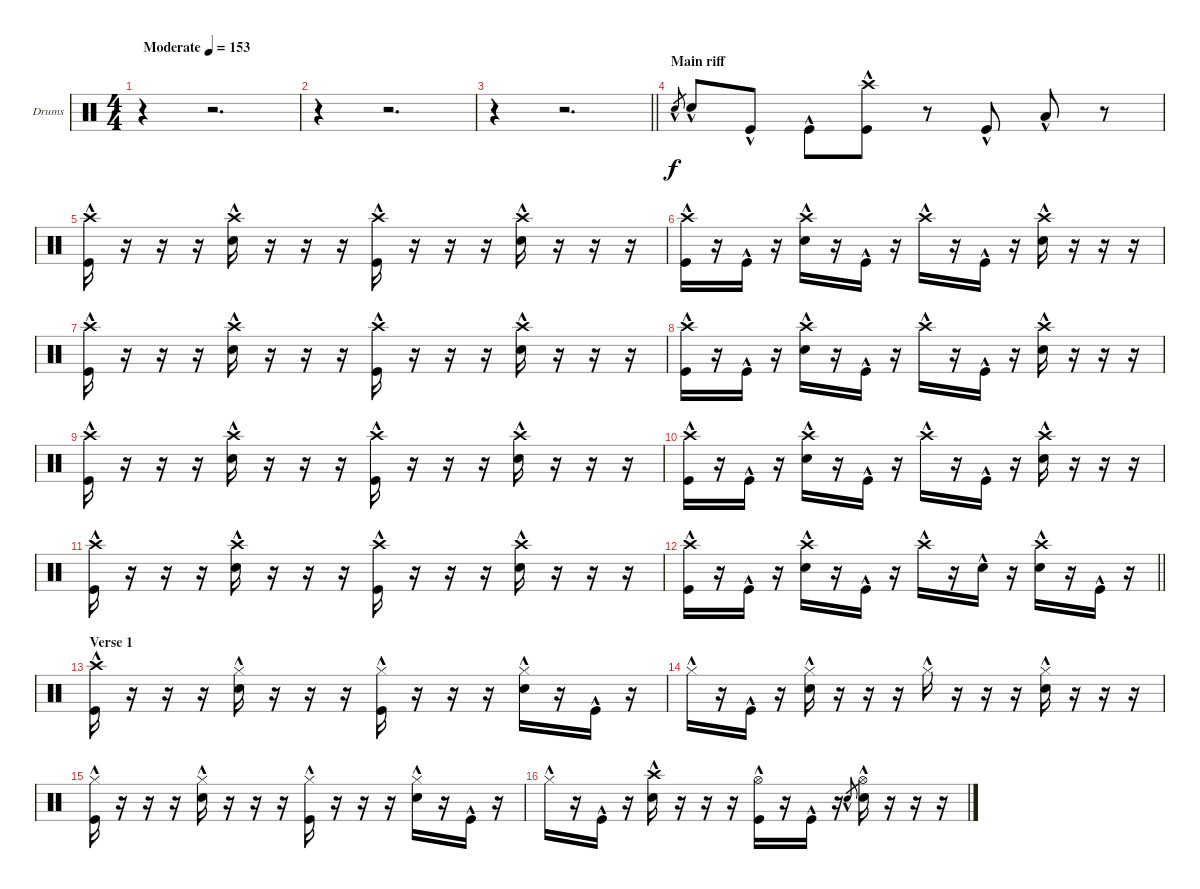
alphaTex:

\bracketExtendMode groupsimilarinstruments
\firstSystemTrackNameOrientation horizontal
\otherSystemsTrackNameOrientation horizontal
\track ("Drumkit" "Drums") {solo instrument percussion}
\staff {score}
\articulation defaults
\ts (4 4)
\beaming (8 2 2 2 2)
\tempo (153 "Moderate")
\clef neutral
\ks c
r.4{dy f} r.2{d} |
r.4 r.2{d} |
\barLineRight lightlight
r.4 r.2{d} |
\section ("" "Main riff")
"Snare (hit) 2"{hac}.8{gr} "Snare (hit) 2"{hac}.8 "Kick (hit)"{hac}.8 "Kick (hit)"{hac}.8 ("Crash high (hit)"{hac} "Kick (hit)"{hac}).8 r.8 "Kick (hit)"{hac}.8 "Low Tom (hit)"{hac}.8 r.8 |
("Crash high (hit)"{hac} "Kick (hit)"{hac}).16 r.16 r.16 r.16 ("Crash high (hit)"{hac} "Snare (hit) 2"{hac}).16 r.16 r.16 r.16 ("Crash high (hit)"{hac} "Kick (hit)"{hac}).16 r.16 r.16 r.16 ("Crash high (hit)"{hac} "Snare (hit) 2"{hac}).16 r.16 r.16 r.16 |
("Crash high (hit)"{hac} "Kick (hit)"{hac}).16 r.16 "Kick (hit)"{hac}.16 r.16 ("Crash high (hit)"{hac} "Snare (hit) 2"{hac}).16 r.16 "Kick (hit)"{hac}.16 r.16 "Crash high (hit)"{hac}.16 r.16 "Kick (hit)"{hac}.16 r.16 ("Crash high (hit)"{hac} "Snare (hit) 2"{hac}).16 r.16 r.16 r.16 |
("Crash high (hit)"{hac} "Kick (hit)"{hac}).16 r.16 r.16 r.16 ("Crash high (hit)"{hac} "Snare (hit) 2"{hac}).16 r.16 r.16 r.16 ("Crash high (hit)"{hac} "Kick (hit)"{hac}).16 r.16 r.16 r.16 ("Crash high (hit)"{hac} "Snare (hit) 2"{hac}).16 r.16 r.16 r.16 |
("Crash high (hit)"{hac} "Kick (hit)"{hac}).16 r.16 "Kick (hit)"{hac}.16 r.16 ("Crash high (hit)"{hac} "Snare (hit) 2"{hac}).16 r.16 "Kick (hit)"{hac}.16 r.16 "Crash high (hit)"{hac}.16 r.16 "Kick (hit)"{hac}.16 r.16 ("Crash high (hit)"{hac} "Snare (hit) 2"{hac}).16 r.16 r.16 r.16 |
("Crash high (hit)"{hac} "Kick (hit)"{hac}).16 r.16 r.16 r.16 ("Crash high (hit)"{hac} "Snare (hit) 2"{hac}).16 r.16 r.16 r.16 ("Crash high (hit)"{hac} "Kick (hit)"{hac}).16 r.16 r.16 r.16 ("Crash high (hit)"{hac} "Snare (hit) 2"{hac}).16 r.16 r.16 r.16 |
("Crash high (hit)"{hac} "Kick (hit)"{hac}).16 r.16 "Kick (hit)"{hac}.16 r.16 ("Crash high (hit)"{hac} "Snare (hit) 2"{hac}).16 r.16 "Kick (hit)"{hac}.16 r.16 "Crash high (hit)"{hac}.16 r.16 "Kick (hit)"{hac}.16 r.16 ("Crash high (hit)"{hac} "Snare (hit) 2"{hac}).16 r.16 r.16 r.16 |
("Crash high (hit)"{hac} "Kick (hit)"{hac}).16 r.16 r.16 r.16 ("Crash high (hit)"{hac} "Snare (hit) 2"{hac}).16 r.16 r.16 r.16 ("Crash high (hit)"{hac} "Kick (hit)"{hac}).16 r.16 r.16 r.16 ("Crash high (hit)"{hac} "Snare (hit) 2"{hac}).16 r.16 r.16 r.16 |
\barLineRight lightlight
("Crash high (hit)"{hac} "Kick (hit)"{hac}).16 r.16 "Kick (hit)"{hac}.16 r.16 ("Crash high (hit)"{hac} "Snare (hit) 2"{hac}).16 r.16 "Kick (hit)"{hac}.16 r.16 "Crash high (hit)"{hac}.16 r.16 "Snare (hit) 2"{hac}.16 r.16 ("Crash high (hit)"{hac} "Snare (hit) 2"{hac}).16 r.16 "Kick (hit)"{hac}.16 r.16 |
\section ("" "Verse 1")
("Crash high (hit)"{hac} "Kick (hit)"{hac}).16 r.16 r.16 r.16 ("Hi-Hat (closed)"{hac} "Snare (hit) 2"{hac}).16 r.16 r.16 r.16 ("Hi-Hat (closed)"{hac} "Kick (hit)"{hac}).16 r.16 r.16 r.16 ("Hi-Hat (closed)"{hac} "Snare (hit) 2"{hac}).16 r.16 "Kick (hit)"{hac}.16 r.16 |
"Hi-Hat (closed)"{hac}.16 r.16 "Kick (hit)"{hac}.16 r.16 ("Hi-Hat (closed)"{hac} "Snare (hit) 2"{hac}).16 r.16 r.16 r.16 "Hi-Hat (closed)"{hac}.16 r.16 r.16 r.16 ("Hi-Hat (closed)"{hac} "Snare (hit) 2"{hac}).16 r.16 r.16 r.16 |
("Hi-Hat (closed)"{hac} "Kick (hit)"{hac}).16 r.16 r.16 r.16 ("Hi-Hat (closed)"{hac} "Snare (hit) 2"{hac}).16 r.16 r.16 r.16 ("Hi-Hat (closed)"{hac} "Kick (hit)"{hac}).16 r.16 r.16 r.16 ("Hi-Hat (closed)"{hac} "Snare (hit) 2"{hac}).16 r.16 "Kick (hit)"{hac}.16 r.16 |
"Hi-Hat (closed)"{hac}.16 r.16 "Kick (hit)"{hac}.16 r.16 ("Crash high (hit)"{hac} "Snare (hit) 2"{hac}).16 r.16 r.16 r.16 ("Hi-Hat (open)"{hac} "Kick (hit)"{hac}).16 r.16 "Kick (hit)"{hac}.16 r.16 "Snare (hit) 2"{hac}.8{gr} ("Hi-Hat (open)"{hac} "Snare (hit) 2"{hac}).16 r.16 r.16 r.16
